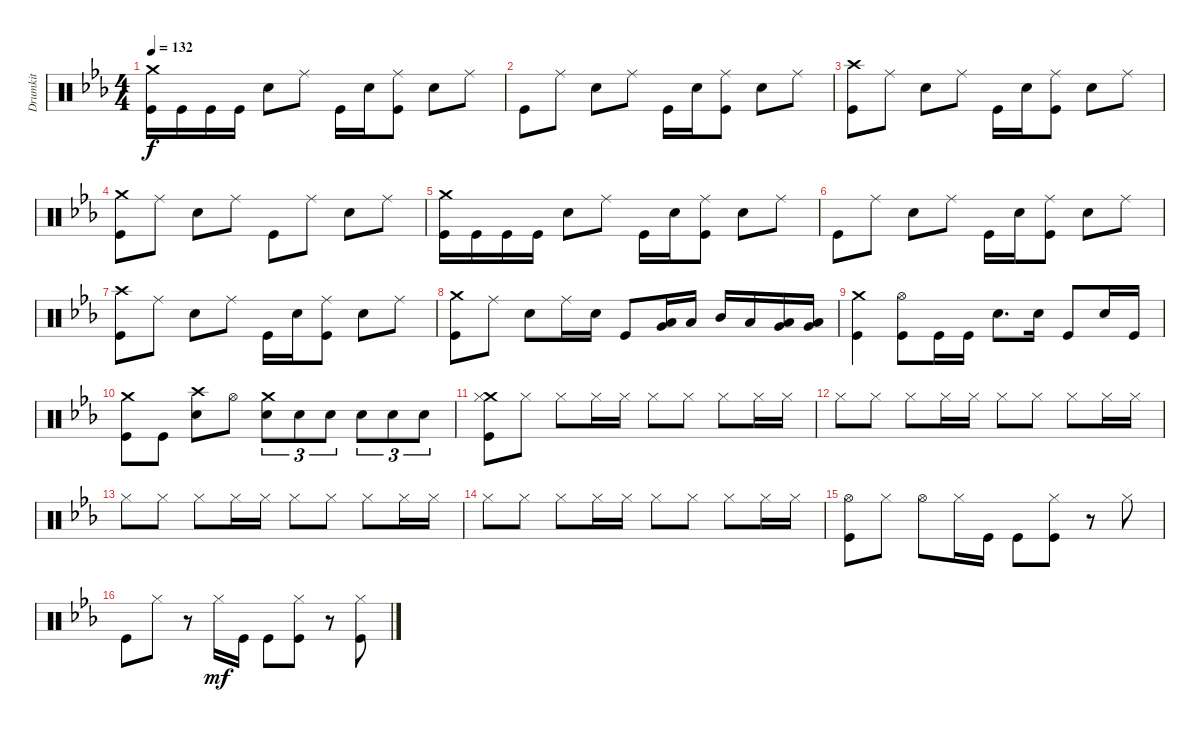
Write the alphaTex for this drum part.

\track ("Drumkit" "Drumkit") {instrument percussion}
\staff {score}
\articulation defaults
\ts (4 4)
\tempo 132
\clef neutral
\ks eb
("Kick (hit)" "Crash medium (hit)").16{dy f} "Kick (hit)".16 "Kick (hit)".16 "Kick (hit)".16 "Snare (hit) 2".8 "Ride (middle)".8 "Kick (hit)".16 "Snare (hit) 2".16 ("Kick (hit)" "Ride (middle)").8 "Snare (hit) 2".8 "Ride (middle)".8 |
"Kick (hit)".8 "Ride (middle)".8 "Snare (hit) 2".8 "Ride (middle)".8 "Kick (hit)".16 "Snare (hit) 2".16 ("Kick (hit)" "Ride (middle)").8 "Snare (hit) 2".8 "Ride (middle)".8 |
("Kick (hit)" "Crash high (hit)").8 "Ride (middle)".8 "Snare (hit) 2".8 "Ride (middle)".8 "Kick (hit)".16 "Snare (hit) 2".16 ("Kick (hit)" "Ride (middle)").8 "Snare (hit) 2".8 "Ride (middle)".8 |
("Kick (hit)" "Crash medium (hit)").8 "Ride (middle)".8 "Snare (hit) 2".8 "Ride (middle)".8 "Kick (hit)".8 "Ride (middle)".8 "Snare (hit) 2".8 "Ride (middle)".8 |
("Kick (hit)" "Crash medium (hit)").16 "Kick (hit)".16 "Kick (hit)".16 "Kick (hit)".16 "Snare (hit) 2".8 "Ride (middle)".8 "Kick (hit)".16 "Snare (hit) 2".16 ("Kick (hit)" "Ride (middle)").8 "Snare (hit) 2".8 "Ride (middle)".8 |
"Kick (hit)".8 "Ride (middle)".8 "Snare (hit) 2".8 "Ride (middle)".8 "Kick (hit)".16 "Snare (hit) 2".16 ("Kick (hit)" "Ride (middle)").8 "Snare (hit) 2".8 "Ride (middle)".8 |
("Kick (hit)" "Crash high (hit)").8 "Ride (middle)".8 "Snare (hit) 2".8 "Ride (middle)".8 "Kick (hit)".16 "Snare (hit) 2".16 ("Kick (hit)" "Ride (middle)").8 "Snare (hit) 2".8 "Ride (middle)".8 |
("Kick (hit)" "Crash medium (hit)").8 "Ride (middle)".8 "Snare (hit) 2".8 "Ride (middle)".16 "Snare (hit) 2".16 "Kick (hit)".8 ("Very Low Tom (hit)" "Low Floor Tom (hit)").16 "Low Tom (hit)".16 "Mid Tom (hit)".16 "Low Tom (hit)".16 ("Very Low Tom (hit)" "Low Floor Tom (hit)").16 ("Low Floor Tom (hit)" "Very Low Tom (hit)").16 |
("Kick (hit)" "Crash medium (hit)").4 ("Kick (hit)" "Hi-Hat (open)").8 "Kick (hit)".16 "Kick (hit)".16 "Snare (hit) 2".8{d} "Snare (hit) 2".16 "Kick (hit)".8 "Snare (hit) 2".16 "Kick (hit)".16 |
("Kick (hit)" "Crash medium (hit)").8 "Kick (hit)".8 ("Snare (hit) 2" "Crash high (hit)").8 "Hi-Hat (open)".8 ("Snare (hit) 2" "Crash medium (hit)").8{tu (3 2)} "Snare (hit) 2".8{tu (3 2)} "Snare (hit) 2".8{tu (3 2)} "Snare (hit) 2".8{tu (3 2)} "Snare (hit) 2".8{tu (3 2)} "Snare (hit) 2".8{tu (3 2)} |
("Crash medium (hit)" "Kick (hit)" "Hi-Hat (closed)").8 "Hi-Hat (closed)".8 "Hi-Hat (closed)".8 "Hi-Hat (closed)".16 "Hi-Hat (closed)".16 "Hi-Hat (closed)".8 "Hi-Hat (closed)".8 "Hi-Hat (closed)".8 "Hi-Hat (closed)".16 "Hi-Hat (closed)".16 |
"Hi-Hat (closed)".8 "Hi-Hat (closed)".8 "Hi-Hat (closed)".8 "Hi-Hat (closed)".16 "Hi-Hat (closed)".16 "Hi-Hat (closed)".8 "Hi-Hat (closed)".8 "Hi-Hat (closed)".8 "Hi-Hat (closed)".16 "Hi-Hat (closed)".16 |
"Hi-Hat (closed)".8 "Hi-Hat (closed)".8 "Hi-Hat (closed)".8 "Hi-Hat (closed)".16 "Hi-Hat (closed)".16 "Hi-Hat (closed)".8 "Hi-Hat (closed)".8 "Hi-Hat (closed)".8 "Hi-Hat (closed)".16 "Hi-Hat (closed)".16 |
"Hi-Hat (closed)".8 "Hi-Hat (closed)".8 "Hi-Hat (closed)".8 "Hi-Hat (closed)".16 "Hi-Hat (closed)".16 "Hi-Hat (closed)".8 "Hi-Hat (closed)".8 "Hi-Hat (closed)".8 "Hi-Hat (closed)".16 "Hi-Hat (closed)".16 |
("Hi-Hat (open)" "Kick (hit)").8 "Hi-Hat (closed)".8 "Hi-Hat (open)".8 "Hi-Hat (closed)".16 "Kick (hit)".16 "Kick (hit)".8 ("Hi-Hat (closed)" "Kick (hit)").8 r.8 "Hi-Hat (closed)".8 |
"Kick (hit)".8 "Hi-Hat (closed)".8 r.8 "Hi-Hat (closed)".16{dy mf} "Kick (hit)".16 "Kick (hit)".8 ("Hi-Hat (closed)" "Kick (hit)").8 r.8 ("Hi-Hat (closed)" "Kick (hit)").8
